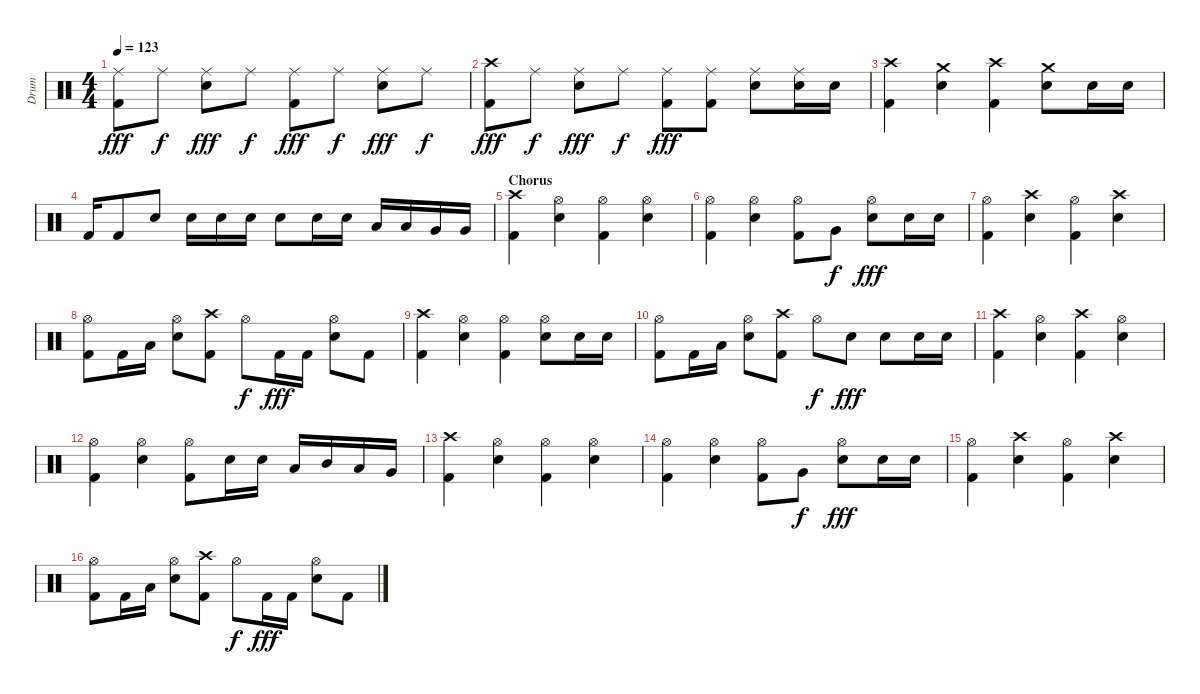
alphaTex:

\track ("Drum" "Drum") {instrument percussion}
\staff {score}
\articulation defaults
\ts (4 4)
\tempo 123
\clef neutral
\ks c
("Ride (middle)" "Kick (hit) 2").8{dy fff} "Ride (middle)".8{dy f} ("Ride (middle)" "Electric Snare (hit)").8{dy fff} "Ride (middle)".8{dy f} ("Ride (middle)" "Kick (hit) 2").8{dy fff} "Ride (middle)".8{dy f} ("Ride (middle)" "Electric Snare (hit)").8{dy fff} "Ride (middle)".8{dy f} |
("Crash high (hit)" "Kick (hit) 2").8{dy fff} "Ride (middle)".8{dy f} ("Ride (middle)" "Electric Snare (hit)").8{dy fff} "Ride (middle)".8{dy f} ("Ride (middle)" "Kick (hit) 2").8{dy fff} ("Ride (middle)" "Kick (hit) 2").8 ("Ride (middle)" "Electric Snare (hit)").8 ("Ride (middle)" "Electric Snare (hit)").16 "Electric Snare (hit)".16 |
("Crash high (hit)" "Kick (hit) 2").4 ("Crash medium (hit)" "Electric Snare (hit)").4 ("Crash high (hit)" "Kick (hit) 2").4 ("Crash medium (hit)" "Electric Snare (hit)").8 "Electric Snare (hit)".16 "Electric Snare (hit)".16 |
"Kick (hit) 2".16 "Kick (hit) 2".8 "Electric Snare (hit)".8 "Electric Snare (hit)".16 "Electric Snare (hit)".16 "Electric Snare (hit)".16 "Electric Snare (hit)".8 "Electric Snare (hit)".16 "Electric Snare (hit)".16 "Low Tom (hit)".16 "Low Tom (hit)".16 "Very Low Tom (hit)".16 "Very Low Tom (hit)".16 |
\section ("" "Chorus")
("Crash high (hit)" "Kick (hit) 2").4 ("Hi-Hat (open)" "Electric Snare (hit)").4 ("Hi-Hat (open)" "Kick (hit) 2").4 ("Hi-Hat (open)" "Electric Snare (hit)").4 |
("Hi-Hat (open)" "Kick (hit) 2").4 ("Hi-Hat (open)" "Electric Snare (hit)").4 ("Hi-Hat (open)" "Kick (hit) 2").8 "Very Low Tom (hit)".8{dy f} ("Hi-Hat (open)" "Electric Snare (hit)").8{dy fff} "Electric Snare (hit)".16 "Electric Snare (hit)".16 |
("Hi-Hat (open)" "Kick (hit) 2").4 ("Crash high (hit)" "Electric Snare (hit)").4 ("Hi-Hat (open)" "Kick (hit) 2").4 ("Crash high (hit)" "Electric Snare (hit)").4 |
("Hi-Hat (open)" "Kick (hit) 2").8 "Kick (hit) 2".16 "Low Tom (hit)".16 ("Hi-Hat (open)" "Electric Snare (hit)").8 ("Crash high (hit)" "Kick (hit) 2").8 "Hi-Hat (open)".8{dy f} "Kick (hit) 2".16{dy fff} "Kick (hit) 2".16 ("Hi-Hat (open)" "Electric Snare (hit)").8 "Kick (hit) 2".8 |
("Crash high (hit)" "Kick (hit) 2").4 ("Hi-Hat (open)" "Electric Snare (hit)").4 ("Hi-Hat (open)" "Kick (hit) 2").4 ("Hi-Hat (open)" "Electric Snare (hit)").8 "Electric Snare (hit)".16 "Electric Snare (hit)".16 |
("Hi-Hat (open)" "Kick (hit) 2").8 "Kick (hit) 2".16 "Low Tom (hit)".16 ("Hi-Hat (open)" "Electric Snare (hit)").8 ("Crash high (hit)" "Kick (hit) 2").8 "Hi-Hat (open)".8{dy f} "Electric Snare (hit)".8{dy fff} "Electric Snare (hit)".8 "Electric Snare (hit)".16 "Electric Snare (hit)".16 |
("Crash high (hit)" "Kick (hit) 2").4 ("Hi-Hat (open)" "Electric Snare (hit)").4 ("Crash high (hit)" "Kick (hit) 2").4 ("Hi-Hat (open)" "Electric Snare (hit)").4 |
("Hi-Hat (open)" "Kick (hit) 2").4 ("Hi-Hat (open)" "Electric Snare (hit)").4 ("Hi-Hat (open)" "Kick (hit) 2").8 "Electric Snare (hit)".16 "Electric Snare (hit)".16 "Low Tom (hit)".16 "Mid Tom (hit)".16 "Low Tom (hit)".16 "Very Low Tom (hit)".16 |
("Crash high (hit)" "Kick (hit) 2").4 ("Hi-Hat (open)" "Electric Snare (hit)").4 ("Hi-Hat (open)" "Kick (hit) 2").4 ("Hi-Hat (open)" "Electric Snare (hit)").4 |
("Hi-Hat (open)" "Kick (hit) 2").4 ("Hi-Hat (open)" "Electric Snare (hit)").4 ("Hi-Hat (open)" "Kick (hit) 2").8 "Very Low Tom (hit)".8{dy f} ("Hi-Hat (open)" "Electric Snare (hit)").8{dy fff} "Electric Snare (hit)".16 "Electric Snare (hit)".16 |
("Hi-Hat (open)" "Kick (hit) 2").4 ("Crash high (hit)" "Electric Snare (hit)").4 ("Hi-Hat (open)" "Kick (hit) 2").4 ("Crash high (hit)" "Electric Snare (hit)").4 |
("Hi-Hat (open)" "Kick (hit) 2").8 "Kick (hit) 2".16 "Low Tom (hit)".16 ("Hi-Hat (open)" "Electric Snare (hit)").8 ("Crash high (hit)" "Kick (hit) 2").8 "Hi-Hat (open)".8{dy f} "Kick (hit) 2".16{dy fff} "Kick (hit) 2".16 ("Hi-Hat (open)" "Electric Snare (hit)").8 "Kick (hit) 2".8
